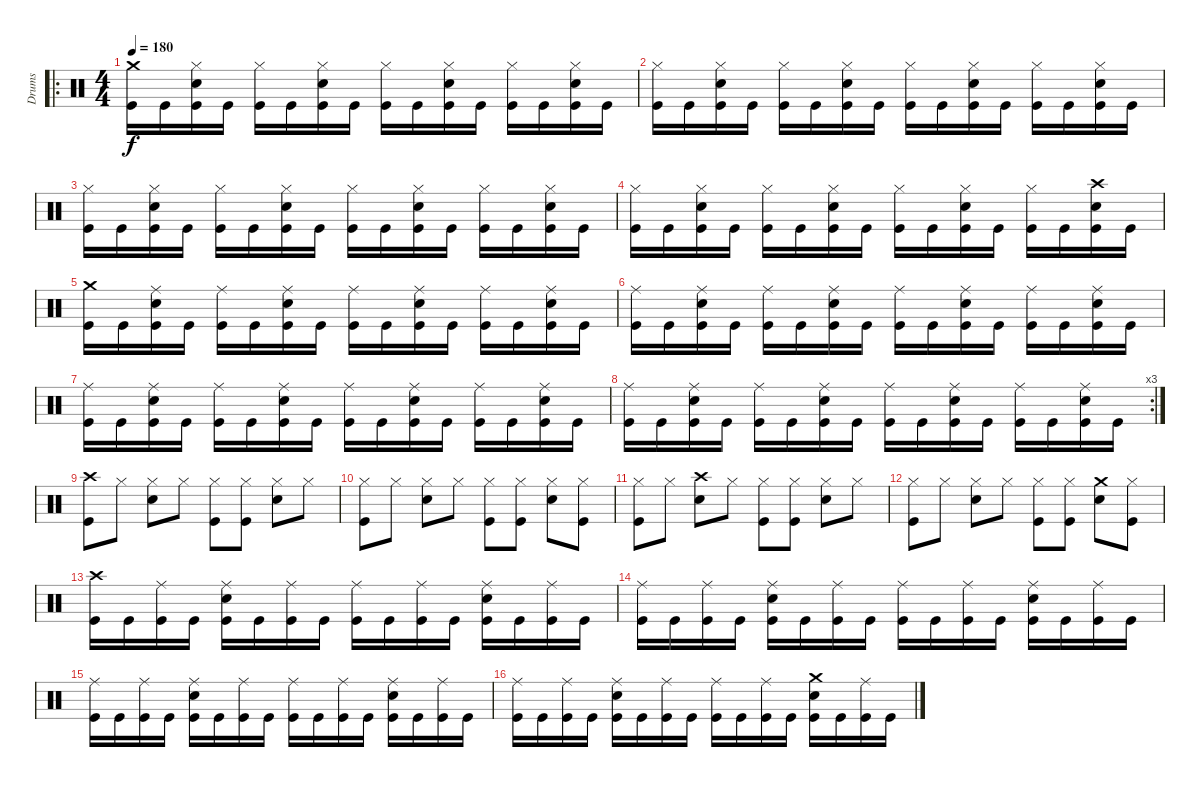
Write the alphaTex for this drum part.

\track ("Drums" "Drums") {instrument percussion}
\staff {score}
\articulation defaults
\ro
\ts (4 4)
\tempo 180
\clef neutral
\ks c
("Crash medium (hit)" "Kick (hit)").16{dy f} "Kick (hit)".16 ("Hi-Hat (closed)" "Snare (hit) 2" "Kick (hit)").16 "Kick (hit)".16 ("Hi-Hat (closed)" "Kick (hit)").16 "Kick (hit)".16 ("Hi-Hat (closed)" "Snare (hit) 2" "Kick (hit)").16 "Kick (hit)".16 ("Hi-Hat (closed)" "Kick (hit)").16 "Kick (hit)".16 ("Hi-Hat (closed)" "Snare (hit) 2" "Kick (hit)").16 "Kick (hit)".16 ("Hi-Hat (closed)" "Kick (hit)").16 "Kick (hit)".16 ("Hi-Hat (closed)" "Snare (hit) 2" "Kick (hit)").16 "Kick (hit)".16 |
("Hi-Hat (closed)" "Kick (hit)").16 "Kick (hit)".16 ("Hi-Hat (closed)" "Snare (hit) 2" "Kick (hit)").16 "Kick (hit)".16 ("Hi-Hat (closed)" "Kick (hit)").16 "Kick (hit)".16 ("Hi-Hat (closed)" "Snare (hit) 2" "Kick (hit)").16 "Kick (hit)".16 ("Hi-Hat (closed)" "Kick (hit)").16 "Kick (hit)".16 ("Hi-Hat (closed)" "Snare (hit) 2" "Kick (hit)").16 "Kick (hit)".16 ("Hi-Hat (closed)" "Kick (hit)").16 "Kick (hit)".16 ("Hi-Hat (closed)" "Snare (hit) 2" "Kick (hit)").16 "Kick (hit)".16 |
("Hi-Hat (closed)" "Kick (hit)").16 "Kick (hit)".16 ("Hi-Hat (closed)" "Snare (hit) 2" "Kick (hit)").16 "Kick (hit)".16 ("Hi-Hat (closed)" "Kick (hit)").16 "Kick (hit)".16 ("Hi-Hat (closed)" "Snare (hit) 2" "Kick (hit)").16 "Kick (hit)".16 ("Hi-Hat (closed)" "Kick (hit)").16 "Kick (hit)".16 ("Hi-Hat (closed)" "Snare (hit) 2" "Kick (hit)").16 "Kick (hit)".16 ("Hi-Hat (closed)" "Kick (hit)").16 "Kick (hit)".16 ("Hi-Hat (closed)" "Snare (hit) 2" "Kick (hit)").16 "Kick (hit)".16 |
("Hi-Hat (closed)" "Kick (hit)").16 "Kick (hit)".16 ("Hi-Hat (closed)" "Snare (hit) 2" "Kick (hit)").16 "Kick (hit)".16 ("Hi-Hat (closed)" "Kick (hit)").16 "Kick (hit)".16 ("Hi-Hat (closed)" "Snare (hit) 2" "Kick (hit)").16 "Kick (hit)".16 ("Hi-Hat (closed)" "Kick (hit)").16 "Kick (hit)".16 ("Hi-Hat (closed)" "Snare (hit) 2" "Kick (hit)").16 "Kick (hit)".16 ("Hi-Hat (closed)" "Kick (hit)").16 "Kick (hit)".16 ("Crash high (hit)" "Snare (hit) 2" "Kick (hit)").16 "Kick (hit)".16 |
("Crash medium (hit)" "Kick (hit)").16 "Kick (hit)".16 ("Ride (middle)" "Snare (hit) 2" "Kick (hit)").16 "Kick (hit)".16 ("Ride (middle)" "Kick (hit)").16 "Kick (hit)".16 ("Ride (middle)" "Snare (hit) 2" "Kick (hit)").16 "Kick (hit)".16 ("Ride (middle)" "Kick (hit)").16 "Kick (hit)".16 ("Ride (middle)" "Snare (hit) 2" "Kick (hit)").16 "Kick (hit)".16 ("Ride (middle)" "Kick (hit)").16 "Kick (hit)".16 ("Ride (middle)" "Snare (hit) 2" "Kick (hit)").16 "Kick (hit)".16 |
("Ride (middle)" "Kick (hit)").16 "Kick (hit)".16 ("Ride (middle)" "Snare (hit) 2" "Kick (hit)").16 "Kick (hit)".16 ("Ride (middle)" "Kick (hit)").16 "Kick (hit)".16 ("Ride (middle)" "Snare (hit) 2" "Kick (hit)").16 "Kick (hit)".16 ("Ride (middle)" "Kick (hit)").16 "Kick (hit)".16 ("Ride (middle)" "Snare (hit) 2" "Kick (hit)").16 "Kick (hit)".16 ("Ride (middle)" "Kick (hit)").16 "Kick (hit)".16 ("Ride (middle)" "Snare (hit) 2" "Kick (hit)").16 "Kick (hit)".16 |
("Ride (middle)" "Kick (hit)").16 "Kick (hit)".16 ("Ride (middle)" "Snare (hit) 2" "Kick (hit)").16 "Kick (hit)".16 ("Ride (middle)" "Kick (hit)").16 "Kick (hit)".16 ("Ride (middle)" "Snare (hit) 2" "Kick (hit)").16 "Kick (hit)".16 ("Ride (middle)" "Kick (hit)").16 "Kick (hit)".16 ("Ride (middle)" "Snare (hit) 2" "Kick (hit)").16 "Kick (hit)".16 ("Ride (middle)" "Kick (hit)").16 "Kick (hit)".16 ("Ride (middle)" "Snare (hit) 2" "Kick (hit)").16 "Kick (hit)".16 |
\rc 3
("Ride (middle)" "Kick (hit)").16 "Kick (hit)".16 ("Ride (middle)" "Snare (hit) 2" "Kick (hit)").16 "Kick (hit)".16 ("Ride (middle)" "Kick (hit)").16 "Kick (hit)".16 ("Ride (middle)" "Snare (hit) 2" "Kick (hit)").16 "Kick (hit)".16 ("Ride (middle)" "Kick (hit)").16 "Kick (hit)".16 ("Ride (middle)" "Snare (hit) 2" "Kick (hit)").16 "Kick (hit)".16 ("Ride (middle)" "Kick (hit)").16 "Kick (hit)".16 ("Ride (middle)" "Snare (hit) 2" "Kick (hit)").16 "Kick (hit)".16 |
("Crash high (hit)" "Kick (hit)").8 "Hi-Hat (closed)".8 ("Hi-Hat (closed)" "Snare (hit) 2").8 "Hi-Hat (closed)".8 ("Hi-Hat (closed)" "Kick (hit)").8 ("Hi-Hat (closed)" "Kick (hit)").8 ("Hi-Hat (closed)" "Snare (hit) 2").8 "Hi-Hat (closed)".8 |
("Hi-Hat (closed)" "Kick (hit)").8 "Hi-Hat (closed)".8 ("Hi-Hat (closed)" "Snare (hit) 2").8 "Hi-Hat (closed)".8 ("Hi-Hat (closed)" "Kick (hit)").8 ("Hi-Hat (closed)" "Kick (hit)").8 ("Hi-Hat (closed)" "Snare (hit) 2").8 ("Hi-Hat (closed)" "Kick (hit)").8 |
("Hi-Hat (closed)" "Kick (hit)").8 "Hi-Hat (closed)".8 ("Crash high (hit)" "Snare (hit) 2").8 "Hi-Hat (closed)".8 ("Hi-Hat (closed)" "Kick (hit)").8 ("Hi-Hat (closed)" "Kick (hit)").8 ("Hi-Hat (closed)" "Snare (hit) 2").8 "Hi-Hat (closed)".8 |
("Hi-Hat (closed)" "Kick (hit)").8 "Hi-Hat (closed)".8 ("Hi-Hat (closed)" "Snare (hit) 2").8 "Hi-Hat (closed)".8 ("Hi-Hat (closed)" "Kick (hit)").8 ("Hi-Hat (closed)" "Kick (hit)").8 ("Crash medium (hit)" "Snare (hit) 2").8 ("Hi-Hat (closed)" "Kick (hit)").8 |
("Crash high (hit)" "Kick (hit)").16 "Kick (hit)".16 ("Ride (middle)" "Kick (hit)").16 "Kick (hit)".16 ("Ride (middle)" "Snare (hit) 2" "Kick (hit)").16 "Kick (hit)".16 ("Ride (middle)" "Kick (hit)").16 "Kick (hit)".16 ("Ride (middle)" "Kick (hit)").16 "Kick (hit)".16 ("Ride (middle)" "Kick (hit)").16 "Kick (hit)".16 ("Ride (middle)" "Snare (hit) 2" "Kick (hit)").16 "Kick (hit)".16 ("Ride (middle)" "Kick (hit)").16 "Kick (hit)".16 |
("Ride (middle)" "Kick (hit)").16 "Kick (hit)".16 ("Ride (middle)" "Kick (hit)").16 "Kick (hit)".16 ("Ride (middle)" "Snare (hit) 2" "Kick (hit)").16 "Kick (hit)".16 ("Ride (middle)" "Kick (hit)").16 "Kick (hit)".16 ("Ride (middle)" "Kick (hit)").16 "Kick (hit)".16 ("Ride (middle)" "Kick (hit)").16 "Kick (hit)".16 ("Ride (middle)" "Snare (hit) 2" "Kick (hit)").16 "Kick (hit)".16 ("Ride (middle)" "Kick (hit)").16 "Kick (hit)".16 |
("Ride (middle)" "Kick (hit)").16 "Kick (hit)".16 ("Ride (middle)" "Kick (hit)").16 "Kick (hit)".16 ("Ride (middle)" "Snare (hit) 2" "Kick (hit)").16 "Kick (hit)".16 ("Ride (middle)" "Kick (hit)").16 "Kick (hit)".16 ("Ride (middle)" "Kick (hit)").16 "Kick (hit)".16 ("Ride (middle)" "Kick (hit)").16 "Kick (hit)".16 ("Ride (middle)" "Snare (hit) 2" "Kick (hit)").16 "Kick (hit)".16 ("Ride (middle)" "Kick (hit)").16 "Kick (hit)".16 |
("Ride (middle)" "Kick (hit)").16 "Kick (hit)".16 ("Ride (middle)" "Kick (hit)").16 "Kick (hit)".16 ("Ride (middle)" "Snare (hit) 2" "Kick (hit)").16 "Kick (hit)".16 ("Ride (middle)" "Kick (hit)").16 "Kick (hit)".16 ("Ride (middle)" "Kick (hit)").16 "Kick (hit)".16 ("Ride (middle)" "Kick (hit)").16 "Kick (hit)".16 ("Crash medium (hit)" "Snare (hit) 2" "Kick (hit)").16 "Kick (hit)".16 ("Ride (middle)" "Kick (hit)").16 "Kick (hit)".16
